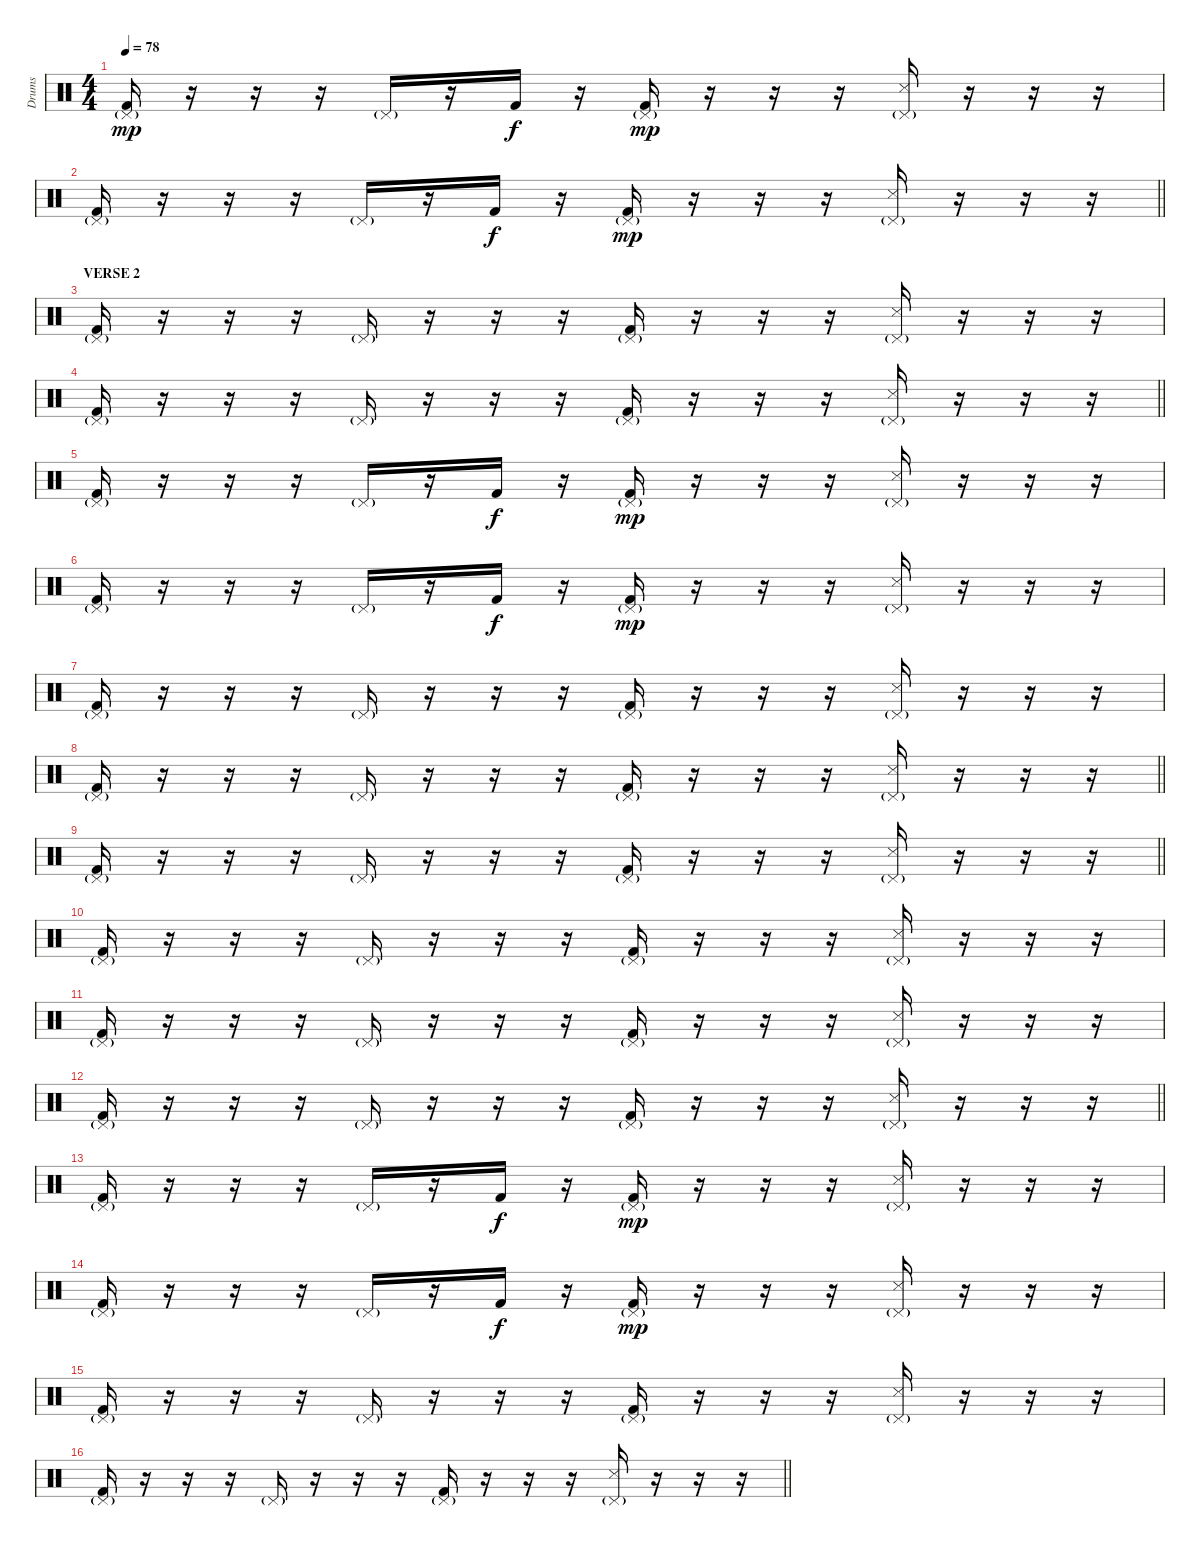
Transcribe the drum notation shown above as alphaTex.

\track ("Drums" "Drums") {instrument percussion}
\staff {score}
\articulation defaults
\ts (4 4)
\tempo 78
\clef neutral
\ks c
("Pedal Hi-Hat (hit)"{g} "Kick (hit) 2").16{dy mp} r.16 r.16 r.16 "Pedal Hi-Hat (hit)"{g}.16 r.16 "Kick (hit) 2".16{dy f} r.16 ("Pedal Hi-Hat (hit)"{g} "Kick (hit) 2").16{dy mp} r.16 r.16 r.16 ("Pedal Hi-Hat (hit)"{g} "Snare (side stick) 3").16 r.16 r.16 r.16 |
\barLineRight lightlight
("Pedal Hi-Hat (hit)"{g} "Kick (hit) 2").16 r.16 r.16 r.16 "Pedal Hi-Hat (hit)"{g}.16 r.16 "Kick (hit) 2".16{dy f} r.16 ("Pedal Hi-Hat (hit)"{g} "Kick (hit) 2").16{dy mp} r.16 r.16 r.16 ("Pedal Hi-Hat (hit)"{g} "Snare (side stick) 3").16 r.16 r.16 r.16 |
\section ("" "VERSE 2")
("Pedal Hi-Hat (hit)"{g} "Kick (hit) 2").16 r.16 r.16 r.16 "Pedal Hi-Hat (hit)"{g}.16 r.16 r.16 r.16 ("Pedal Hi-Hat (hit)"{g} "Kick (hit) 2").16 r.16 r.16 r.16 ("Pedal Hi-Hat (hit)"{g} "Snare (side stick) 3").16 r.16 r.16 r.16 |
\barLineRight lightlight
("Pedal Hi-Hat (hit)"{g} "Kick (hit) 2").16 r.16 r.16 r.16 "Pedal Hi-Hat (hit)"{g}.16 r.16 r.16 r.16 ("Pedal Hi-Hat (hit)"{g} "Kick (hit) 2").16 r.16 r.16 r.16 ("Pedal Hi-Hat (hit)"{g} "Snare (side stick) 3").16 r.16 r.16 r.16 |
("Pedal Hi-Hat (hit)"{g} "Kick (hit) 2").16 r.16 r.16 r.16 "Pedal Hi-Hat (hit)"{g}.16 r.16 "Kick (hit) 2".16{dy f} r.16 ("Pedal Hi-Hat (hit)"{g} "Kick (hit) 2").16{dy mp} r.16 r.16 r.16 ("Pedal Hi-Hat (hit)"{g} "Snare (side stick) 3").16 r.16 r.16 r.16 |
("Pedal Hi-Hat (hit)"{g} "Kick (hit) 2").16 r.16 r.16 r.16 "Pedal Hi-Hat (hit)"{g}.16 r.16 "Kick (hit) 2".16{dy f} r.16 ("Pedal Hi-Hat (hit)"{g} "Kick (hit) 2").16{dy mp} r.16 r.16 r.16 ("Pedal Hi-Hat (hit)"{g} "Snare (side stick) 3").16 r.16 r.16 r.16 |
("Pedal Hi-Hat (hit)"{g} "Kick (hit) 2").16 r.16 r.16 r.16 "Pedal Hi-Hat (hit)"{g}.16 r.16 r.16 r.16 ("Pedal Hi-Hat (hit)"{g} "Kick (hit) 2").16 r.16 r.16 r.16 ("Pedal Hi-Hat (hit)"{g} "Snare (side stick) 3").16 r.16 r.16 r.16 |
\barLineRight lightlight
("Pedal Hi-Hat (hit)"{g} "Kick (hit) 2").16 r.16 r.16 r.16 "Pedal Hi-Hat (hit)"{g}.16 r.16 r.16 r.16 ("Pedal Hi-Hat (hit)"{g} "Kick (hit) 2").16 r.16 r.16 r.16 ("Pedal Hi-Hat (hit)"{g} "Snare (side stick) 3").16 r.16 r.16 r.16 |
\barLineRight lightlight
("Pedal Hi-Hat (hit)"{g} "Kick (hit) 2").16 r.16 r.16 r.16 "Pedal Hi-Hat (hit)"{g}.16 r.16 r.16 r.16 ("Pedal Hi-Hat (hit)"{g} "Kick (hit) 2").16 r.16 r.16 r.16 ("Pedal Hi-Hat (hit)"{g} "Snare (side stick) 3").16 r.16 r.16 r.16 |
("Pedal Hi-Hat (hit)"{g} "Kick (hit) 2").16 r.16 r.16 r.16 "Pedal Hi-Hat (hit)"{g}.16 r.16 r.16 r.16 ("Pedal Hi-Hat (hit)"{g} "Kick (hit) 2").16 r.16 r.16 r.16 ("Pedal Hi-Hat (hit)"{g} "Snare (side stick) 3").16 r.16 r.16 r.16 |
("Pedal Hi-Hat (hit)"{g} "Kick (hit) 2").16 r.16 r.16 r.16 "Pedal Hi-Hat (hit)"{g}.16 r.16 r.16 r.16 ("Pedal Hi-Hat (hit)"{g} "Kick (hit) 2").16 r.16 r.16 r.16 ("Pedal Hi-Hat (hit)"{g} "Snare (side stick) 3").16 r.16 r.16 r.16 |
\barLineRight lightlight
("Pedal Hi-Hat (hit)"{g} "Kick (hit) 2").16 r.16 r.16 r.16 "Pedal Hi-Hat (hit)"{g}.16 r.16 r.16 r.16 ("Pedal Hi-Hat (hit)"{g} "Kick (hit) 2").16 r.16 r.16 r.16 ("Pedal Hi-Hat (hit)"{g} "Snare (side stick) 3").16 r.16 r.16 r.16 |
("Pedal Hi-Hat (hit)"{g} "Kick (hit) 2").16 r.16 r.16 r.16 "Pedal Hi-Hat (hit)"{g}.16 r.16 "Kick (hit) 2".16{dy f} r.16 ("Pedal Hi-Hat (hit)"{g} "Kick (hit) 2").16{dy mp} r.16 r.16 r.16 ("Pedal Hi-Hat (hit)"{g} "Snare (side stick) 3").16 r.16 r.16 r.16 |
("Pedal Hi-Hat (hit)"{g} "Kick (hit) 2").16 r.16 r.16 r.16 "Pedal Hi-Hat (hit)"{g}.16 r.16 "Kick (hit) 2".16{dy f} r.16 ("Pedal Hi-Hat (hit)"{g} "Kick (hit) 2").16{dy mp} r.16 r.16 r.16 ("Pedal Hi-Hat (hit)"{g} "Snare (side stick) 3").16 r.16 r.16 r.16 |
("Pedal Hi-Hat (hit)"{g} "Kick (hit) 2").16 r.16 r.16 r.16 "Pedal Hi-Hat (hit)"{g}.16 r.16 r.16 r.16 ("Pedal Hi-Hat (hit)"{g} "Kick (hit) 2").16 r.16 r.16 r.16 ("Pedal Hi-Hat (hit)"{g} "Snare (side stick) 3").16 r.16 r.16 r.16 |
\barLineRight lightlight
("Pedal Hi-Hat (hit)"{g} "Kick (hit) 2").16 r.16 r.16 r.16 "Pedal Hi-Hat (hit)"{g}.16 r.16 r.16 r.16 ("Pedal Hi-Hat (hit)"{g} "Kick (hit) 2").16 r.16 r.16 r.16 ("Pedal Hi-Hat (hit)"{g} "Snare (side stick) 3").16 r.16 r.16 r.16
